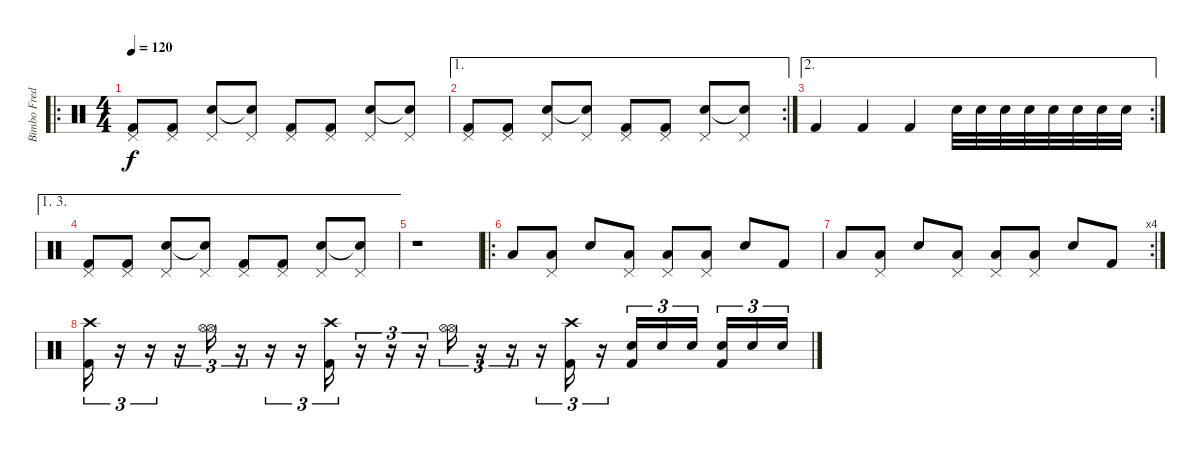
\track ("Bimbo Fred" "Bimbo Fred") {instrument percussion}
\staff {score}
\articulation defaults
\ro
\ts (4 4)
\tempo 120
\clef neutral
\ks c
("Pedal Hi-Hat (hit)" "Kick (hit) 2").8{dy f} ("Pedal Hi-Hat (hit)" "Kick (hit) 2").8 ("Pedal Hi-Hat (hit)" "Snare (hit) 2").8 ("Pedal Hi-Hat (hit)" "Snare (hit) 2"{t}).8 ("Pedal Hi-Hat (hit)" "Kick (hit) 2").8 ("Pedal Hi-Hat (hit)" "Kick (hit) 2").8 ("Pedal Hi-Hat (hit)" "Snare (hit) 2").8 ("Pedal Hi-Hat (hit)" "Snare (hit)"{t}).8 |
\ae 1
\rc 2
("Pedal Hi-Hat (hit)" "Kick (hit) 2").8 ("Pedal Hi-Hat (hit)" "Kick (hit) 2").8 ("Pedal Hi-Hat (hit)" "Snare (hit) 2").8 ("Pedal Hi-Hat (hit)" "Snare (hit) 2"{t}).8 ("Pedal Hi-Hat (hit)" "Kick (hit) 2").8 ("Pedal Hi-Hat (hit)" "Kick (hit) 2").8 ("Pedal Hi-Hat (hit)" "Snare (hit) 2").8 ("Pedal Hi-Hat (hit)" "Snare (hit)"{t}).8 |
\ae 2
\rc 2 "Kick (hit) 2".4 "Kick (hit) 2".4 "Kick (hit) 2".4 "Snare (hit) 2".32 "Snare (hit) 2".32 "Snare (hit) 2".32 "Snare (hit) 2".32 "Snare (hit) 2".32 "Snare (hit) 2".32 "Snare (hit) 2".32 "Snare (hit) 2".32
|
\ae (1 3)
("Pedal Hi-Hat (hit)" "Kick (hit) 2").8 ("Pedal Hi-Hat (hit)" "Kick (hit) 2").8 ("Pedal Hi-Hat (hit)" "Snare (hit) 2").8 ("Pedal Hi-Hat (hit)" "Snare (hit) 2"{t}).8 ("Pedal Hi-Hat (hit)" "Kick (hit) 2").8 ("Pedal Hi-Hat (hit)" "Kick (hit) 2").8 ("Pedal Hi-Hat (hit)" "Snare (hit) 2").8 ("Pedal Hi-Hat (hit)" "Snare (hit)"{t}).8 |
r.1 |
\ro "Low Tom (hit)".8
("Pedal Hi-Hat (hit)" "Low Tom (hit)").8 "Electric Snare (hit)".8 ("Pedal Hi-Hat (hit)" "Low Tom (hit)").8 ("Pedal Hi-Hat (hit)" "Low Tom (hit)").8 ("Pedal Hi-Hat (hit)" "Low Tom (hit)").8 "Electric Snare (hit)".8 "Kick (hit) 2".8 |
\rc 4 "Low Tom (hit)".8
("Pedal Hi-Hat (hit)" "Low Tom (hit)").8 "Electric Snare (hit)".8 ("Pedal Hi-Hat (hit)" "Low Tom (hit)").8 ("Pedal Hi-Hat (hit)" "Low Tom (hit)").8 ("Pedal Hi-Hat (hit)" "Low Tom (hit)").8 "Electric Snare (hit)".8 "Kick (hit) 2".8 |
("Kick (hit) 2" "Crash high (hit)").16{tu (3 2)} r.16{tu (3 2)} r.16{tu (3 2)} r.16{tu (3 2)} ("Hi-Hat (open)" "Hi-Hat (open)").16{tu (3 2)} r.16{tu (3 2)} r.16{tu (3 2)} r.16{tu (3 2)} ("Kick (hit) 2" "Crash high (hit)").16{tu (3 2)} r.16{tu (3 2)} r.16{tu (3 2)} r.16{tu (3 2)} ("Hi-Hat (open)" "Hi-Hat (open)").16{tu (3 2)} r.16{tu (3 2)} r.16{tu (3 2)} r.16{tu (3 2)} ("Kick (hit) 2" "Crash high (hit)").16{tu (3 2)} r.16{tu (3 2)} ("Kick (hit) 2" "Electric Snare (hit)").16{tu (3 2)} "Electric Snare (hit)".16{tu (3 2)} "Electric Snare (hit)".16{tu (3 2)} ("Kick (hit) 2" "Electric Snare (hit)").16{tu (3 2)} "Electric Snare (hit)".16{tu (3 2)} "Electric Snare (hit)".16{tu (3 2)}
